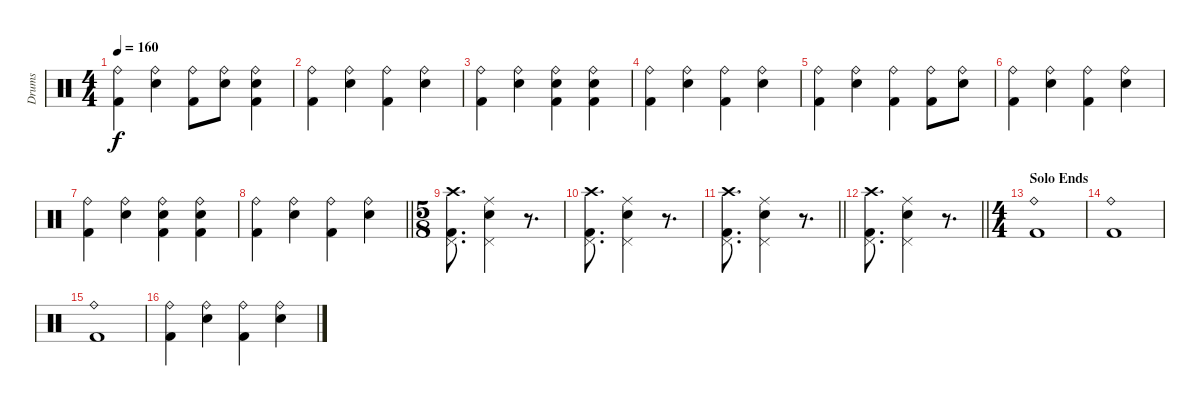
\track ("Drums" "Drums") {instrument percussion}
\staff {score}
\articulation defaults
\ts (4 4)
\tempo 160
\clef neutral
\ks c
("Ride (bell)" "Kick (hit) 2").4{dy f} ("Ride (bell)" "Snare (hit) 2").4 ("Ride (bell)" "Kick (hit) 2").8 ("Ride (bell)" "Snare (hit) 2").8 ("Ride (bell)" "Snare (hit) 2" "Kick (hit) 2").4 |
("Ride (bell)" "Kick (hit) 2").4 ("Ride (bell)" "Snare (hit) 2").4 ("Ride (bell)" "Kick (hit) 2").4 ("Ride (bell)" "Snare (hit) 2").4 |
("Ride (bell)" "Kick (hit) 2").4 ("Ride (bell)" "Snare (hit) 2").4 ("Ride (bell)" "Snare (hit) 2" "Kick (hit) 2").4 ("Ride (bell)" "Snare (hit) 2" "Kick (hit) 2").4 |
("Ride (bell)" "Kick (hit) 2").4 ("Ride (bell)" "Snare (hit) 2").4 ("Ride (bell)" "Kick (hit) 2").4 ("Ride (bell)" "Snare (hit) 2").4 |
("Ride (bell)" "Kick (hit) 2").4 ("Ride (bell)" "Snare (hit) 2").4 ("Ride (bell)" "Kick (hit) 2").4 ("Ride (bell)" "Kick (hit) 2").8 ("Ride (bell)" "Snare (hit) 2").8 |
("Ride (bell)" "Kick (hit) 2").4 ("Ride (bell)" "Snare (hit) 2").4 ("Ride (bell)" "Kick (hit) 2").4 ("Ride (bell)" "Snare (hit) 2").4 |
("Ride (bell)" "Kick (hit) 2").4 ("Ride (bell)" "Snare (hit) 2").4 ("Ride (bell)" "Snare (hit) 2" "Kick (hit) 2").4 ("Ride (bell)" "Snare (hit) 2" "Kick (hit) 2").4 |
\barLineRight lightlight
("Ride (bell)" "Kick (hit) 2").4 ("Ride (bell)" "Snare (hit) 2").4 ("Ride (bell)" "Kick (hit) 2").4 ("Ride (bell)" "Snare (hit) 2").4 |
\ts (5 8)
("Kick (hit) 2" "Pedal Hi-Hat (hit)" "Crash high (hit)").8{d} ("Snare (hit) 2" "Pedal Hi-Hat (hit)" "Ride (middle)").4 r.8{d} |
("Kick (hit) 2" "Pedal Hi-Hat (hit)" "Crash high (hit)").8{d} ("Snare (hit) 2" "Pedal Hi-Hat (hit)" "Ride (middle)").4 r.8{d} |
\barLineRight lightlight
("Kick (hit) 2" "Pedal Hi-Hat (hit)" "Crash high (hit)").8{d} ("Snare (hit) 2" "Pedal Hi-Hat (hit)" "Ride (middle)").4 r.8{d} |
\barLineRight lightlight
("Kick (hit) 2" "Pedal Hi-Hat (hit)" "Crash high (hit)").8{d} ("Snare (hit) 2" "Pedal Hi-Hat (hit)" "Ride (middle)").4 r.8{d} |
\ts (4 4)
\section ("" "Solo Ends")
("Ride (bell)" "Kick (hit) 2").1 |
("Ride (bell)" "Kick (hit) 2").1 |
("Ride (bell)" "Kick (hit) 2").1 |
("Ride (bell)" "Kick (hit) 2").4 ("Ride (bell)" "Snare (hit) 2").4 ("Ride (bell)" "Kick (hit) 2").4 ("Ride (bell)" "Snare (hit) 2").4
